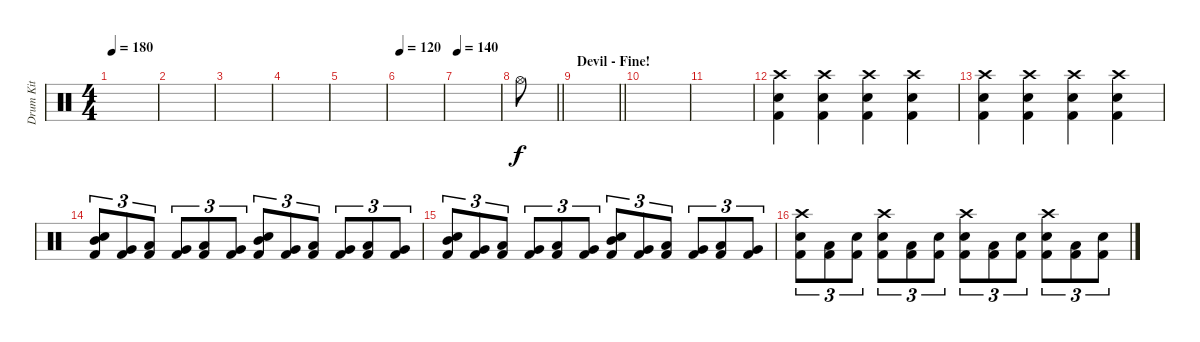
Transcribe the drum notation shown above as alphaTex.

\track ("Drum Kit" "Drum Kit") {instrument percussion}
\staff {score}
\articulation defaults
\ts (4 4)
\tempo 180
\clef neutral
\ks c
|
|
|
|
|
\tempo 120
|
\tempo 140
|
\barLineRight lightlight "Hi-Hat (open)".8
|
\section ("" "Devil - Fine!")
\barLineRight lightlight
|
|
|
("Kick (hit) 2" "Electric Snare (hit)" "Crash high (hit)").4 ("Kick (hit) 2" "Electric Snare (hit)" "Crash high (hit)").4 ("Kick (hit) 2" "Electric Snare (hit)" "Crash high (hit)").4 ("Kick (hit) 2" "Electric Snare (hit)" "Crash high (hit)").4 |
("Kick (hit) 2" "Electric Snare (hit)" "Crash high (hit)").4 ("Kick (hit) 2" "Electric Snare (hit)" "Crash high (hit)").4 ("Kick (hit) 2" "Electric Snare (hit)" "Crash high (hit)").4 ("Kick (hit) 2" "Electric Snare (hit)" "Crash high (hit)").4 |
("Kick (hit) 2" "Mid Tom (hit)" "Electric Snare (hit)").8{tu (3 2)} ("Kick (hit) 2" "Very Low Tom (hit)").8{tu (3 2)} ("Kick (hit) 2" "Low Tom (hit)").8{tu (3 2)} ("Kick (hit) 2" "Very Low Tom (hit)").8{tu (3 2)} ("Kick (hit) 2" "Low Tom (hit)").8{tu (3 2)} ("Kick (hit) 2" "Very Low Tom (hit)").8{tu (3 2)} ("Kick (hit) 2" "Mid Tom (hit)" "Electric Snare (hit)").8{tu (3 2)} ("Kick (hit) 2" "Very Low Tom (hit)").8{tu (3 2)} ("Kick (hit) 2" "Low Tom (hit)").8{tu (3 2)} ("Kick (hit) 2" "Very Low Tom (hit)").8{tu (3 2)} ("Kick (hit) 2" "Low Tom (hit)").8{tu (3 2)} ("Kick (hit) 2" "Very Low Tom (hit)").8{tu (3 2)} |
("Kick (hit) 2" "Mid Tom (hit)" "Electric Snare (hit)").8{tu (3 2)} ("Kick (hit) 2" "Very Low Tom (hit)").8{tu (3 2)} ("Kick (hit) 2" "Low Tom (hit)").8{tu (3 2)} ("Kick (hit) 2" "Very Low Tom (hit)").8{tu (3 2)} ("Kick (hit) 2" "Low Tom (hit)").8{tu (3 2)} ("Kick (hit) 2" "Very Low Tom (hit)").8{tu (3 2)} ("Kick (hit) 2" "Mid Tom (hit)" "Electric Snare (hit)").8{tu (3 2)} ("Kick (hit) 2" "Very Low Tom (hit)").8{tu (3 2)} ("Kick (hit) 2" "Low Tom (hit)").8{tu (3 2)} ("Kick (hit) 2" "Very Low Tom (hit)").8{tu (3 2)} ("Kick (hit) 2" "Low Tom (hit)").8{tu (3 2)} ("Kick (hit) 2" "Very Low Tom (hit)").8{tu (3 2)} |
("Kick (hit) 2" "Electric Snare (hit)" "Crash high (hit)").8{tu (3 2)} ("Kick (hit) 2" "Low Floor Tom (hit)").8{tu (3 2)} ("Kick (hit) 2" "Electric Snare (hit)").8{tu (3 2)} ("Kick (hit) 2" "Electric Snare (hit)" "Crash high (hit)").8{tu (3 2)} ("Kick (hit) 2" "Low Floor Tom (hit)").8{tu (3 2)} ("Kick (hit) 2" "Electric Snare (hit)").8{tu (3 2)} ("Kick (hit) 2" "Electric Snare (hit)" "Crash high (hit)").8{tu (3 2)} ("Kick (hit) 2" "Low Floor Tom (hit)").8{tu (3 2)} ("Kick (hit) 2" "Electric Snare (hit)").8{tu (3 2)} ("Kick (hit) 2" "Electric Snare (hit)" "Crash high (hit)").8{tu (3 2)} ("Kick (hit) 2" "Low Floor Tom (hit)").8{tu (3 2)} ("Kick (hit) 2" "Electric Snare (hit)").8{tu (3 2)}
